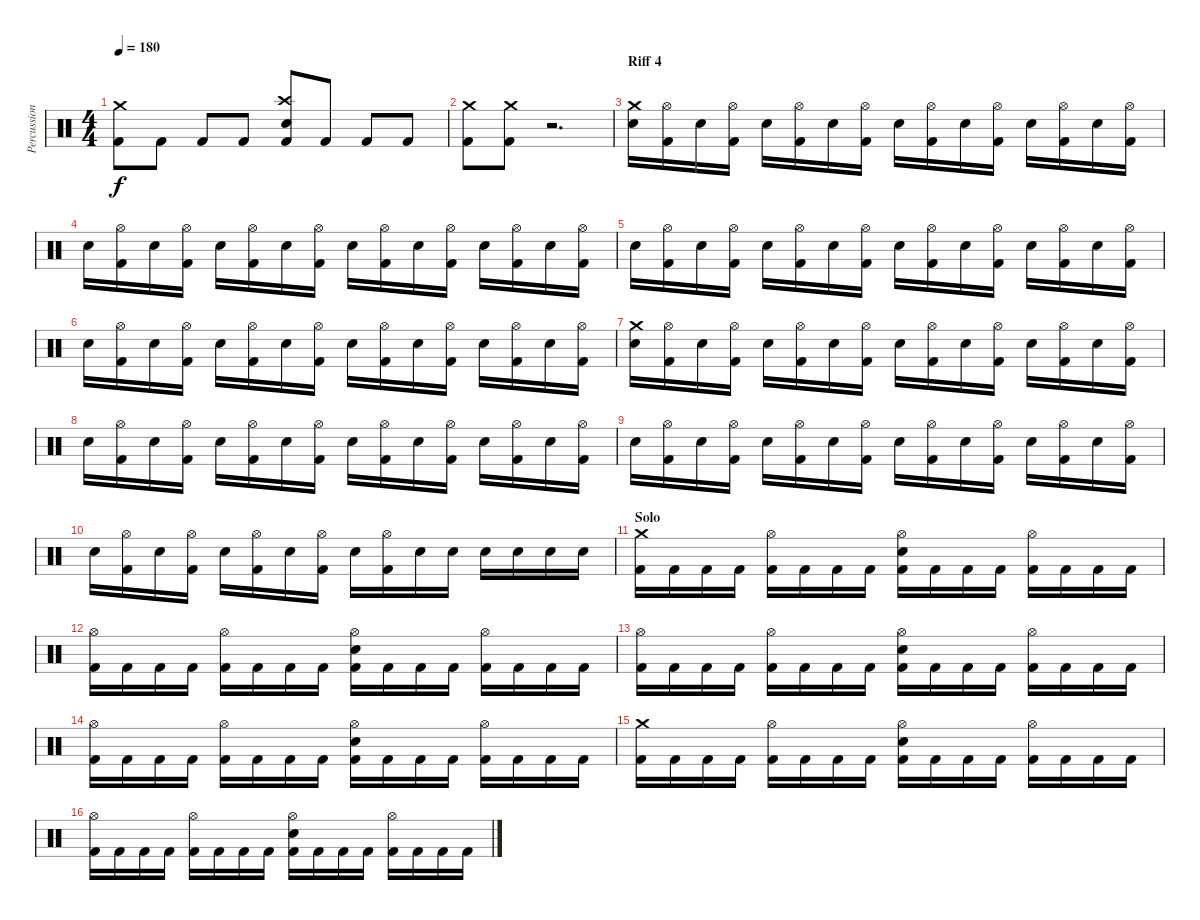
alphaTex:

\track ("Percussions" "Percussion") {instrument percussion}
\staff {score}
\articulation defaults
\ts (4 4)
\tempo 180
\clef neutral
\ks c
("Crash medium (hit)" "Kick (hit) 2").8{dy f} "Kick (hit) 2".8 "Kick (hit) 2".8 "Kick (hit) 2".8 ("Crash high (hit)" "Electric Snare (hit)" "Kick (hit) 2").8 "Kick (hit) 2".8 "Kick (hit) 2".8 "Kick (hit) 2".8 |
("Crash medium (hit)" "Kick (hit) 2").8 ("Crash medium (hit)" "Kick (hit) 2").8 r.2{d} |
\section ("" "Riff 4")
("Crash medium (hit)" "Electric Snare (hit)").16 ("Hi-Hat (open)" "Kick (hit) 2").16 "Electric Snare (hit)".16 ("Hi-Hat (open)" "Kick (hit) 2").16 "Electric Snare (hit)".16 ("Hi-Hat (open)" "Kick (hit) 2").16 "Electric Snare (hit)".16 ("Hi-Hat (open)" "Kick (hit) 2").16 "Electric Snare (hit)".16 ("Hi-Hat (open)" "Kick (hit) 2").16 "Electric Snare (hit)".16 ("Hi-Hat (open)" "Kick (hit) 2").16 "Electric Snare (hit)".16 ("Hi-Hat (open)" "Kick (hit) 2").16 "Electric Snare (hit)".16 ("Hi-Hat (open)" "Kick (hit) 2").16 |
"Electric Snare (hit)".16 ("Hi-Hat (open)" "Kick (hit) 2").16 "Electric Snare (hit)".16 ("Hi-Hat (open)" "Kick (hit) 2").16 "Electric Snare (hit)".16 ("Hi-Hat (open)" "Kick (hit) 2").16 "Electric Snare (hit)".16 ("Hi-Hat (open)" "Kick (hit) 2").16 "Electric Snare (hit)".16 ("Hi-Hat (open)" "Kick (hit) 2").16 "Electric Snare (hit)".16 ("Hi-Hat (open)" "Kick (hit) 2").16 "Electric Snare (hit)".16 ("Hi-Hat (open)" "Kick (hit) 2").16 "Electric Snare (hit)".16 ("Hi-Hat (open)" "Kick (hit) 2").16 |
"Electric Snare (hit)".16 ("Hi-Hat (open)" "Kick (hit) 2").16 "Electric Snare (hit)".16 ("Hi-Hat (open)" "Kick (hit) 2").16 "Electric Snare (hit)".16 ("Hi-Hat (open)" "Kick (hit) 2").16 "Electric Snare (hit)".16 ("Hi-Hat (open)" "Kick (hit) 2").16 "Electric Snare (hit)".16 ("Hi-Hat (open)" "Kick (hit) 2").16 "Electric Snare (hit)".16 ("Hi-Hat (open)" "Kick (hit) 2").16 "Electric Snare (hit)".16 ("Hi-Hat (open)" "Kick (hit) 2").16 "Electric Snare (hit)".16 ("Hi-Hat (open)" "Kick (hit) 2").16 |
"Electric Snare (hit)".16 ("Hi-Hat (open)" "Kick (hit) 2").16 "Electric Snare (hit)".16 ("Hi-Hat (open)" "Kick (hit) 2").16 "Electric Snare (hit)".16 ("Hi-Hat (open)" "Kick (hit) 2").16 "Electric Snare (hit)".16 ("Hi-Hat (open)" "Kick (hit) 2").16 "Electric Snare (hit)".16 ("Hi-Hat (open)" "Kick (hit) 2").16 "Electric Snare (hit)".16 ("Hi-Hat (open)" "Kick (hit) 2").16 "Electric Snare (hit)".16 ("Hi-Hat (open)" "Kick (hit) 2").16 "Electric Snare (hit)".16 ("Hi-Hat (open)" "Kick (hit) 2").16 |
("Crash medium (hit)" "Electric Snare (hit)").16 ("Hi-Hat (open)" "Kick (hit) 2").16 "Electric Snare (hit)".16 ("Hi-Hat (open)" "Kick (hit) 2").16 "Electric Snare (hit)".16 ("Hi-Hat (open)" "Kick (hit) 2").16 "Electric Snare (hit)".16 ("Hi-Hat (open)" "Kick (hit) 2").16 "Electric Snare (hit)".16 ("Hi-Hat (open)" "Kick (hit) 2").16 "Electric Snare (hit)".16 ("Hi-Hat (open)" "Kick (hit) 2").16 "Electric Snare (hit)".16 ("Hi-Hat (open)" "Kick (hit) 2").16 "Electric Snare (hit)".16 ("Hi-Hat (open)" "Kick (hit) 2").16 |
"Electric Snare (hit)".16 ("Hi-Hat (open)" "Kick (hit) 2").16 "Electric Snare (hit)".16 ("Hi-Hat (open)" "Kick (hit) 2").16 "Electric Snare (hit)".16 ("Hi-Hat (open)" "Kick (hit) 2").16 "Electric Snare (hit)".16 ("Hi-Hat (open)" "Kick (hit) 2").16 "Electric Snare (hit)".16 ("Hi-Hat (open)" "Kick (hit) 2").16 "Electric Snare (hit)".16 ("Hi-Hat (open)" "Kick (hit) 2").16 "Electric Snare (hit)".16 ("Hi-Hat (open)" "Kick (hit) 2").16 "Electric Snare (hit)".16 ("Hi-Hat (open)" "Kick (hit) 2").16 |
"Electric Snare (hit)".16 ("Hi-Hat (open)" "Kick (hit) 2").16 "Electric Snare (hit)".16 ("Hi-Hat (open)" "Kick (hit) 2").16 "Electric Snare (hit)".16 ("Hi-Hat (open)" "Kick (hit) 2").16 "Electric Snare (hit)".16 ("Hi-Hat (open)" "Kick (hit) 2").16 "Electric Snare (hit)".16 ("Hi-Hat (open)" "Kick (hit) 2").16 "Electric Snare (hit)".16 ("Hi-Hat (open)" "Kick (hit) 2").16 "Electric Snare (hit)".16 ("Hi-Hat (open)" "Kick (hit) 2").16 "Electric Snare (hit)".16 ("Hi-Hat (open)" "Kick (hit) 2").16 |
"Electric Snare (hit)".16 ("Hi-Hat (open)" "Kick (hit) 2").16 "Electric Snare (hit)".16 ("Hi-Hat (open)" "Kick (hit) 2").16 "Electric Snare (hit)".16 ("Hi-Hat (open)" "Kick (hit) 2").16 "Electric Snare (hit)".16 ("Hi-Hat (open)" "Kick (hit) 2").16 "Electric Snare (hit)".16 ("Hi-Hat (open)" "Kick (hit) 2").16 "Electric Snare (hit)".16 "Electric Snare (hit)".16 "Electric Snare (hit)".16 "Electric Snare (hit)".16 "Electric Snare (hit)".16 "Electric Snare (hit)".16 |
\section ("" "Solo")
("Crash medium (hit)" "Kick (hit) 2").16 "Kick (hit) 2".16 "Kick (hit) 2".16 "Kick (hit) 2".16 ("Hi-Hat (open)" "Kick (hit) 2").16 "Kick (hit) 2".16 "Kick (hit) 2".16 "Kick (hit) 2".16 ("Hi-Hat (open)" "Electric Snare (hit)" "Kick (hit) 2").16 "Kick (hit) 2".16 "Kick (hit) 2".16 "Kick (hit) 2".16 ("Hi-Hat (open)" "Kick (hit) 2").16 "Kick (hit) 2".16 "Kick (hit) 2".16 "Kick (hit) 2".16 |
("Hi-Hat (open)" "Kick (hit) 2").16 "Kick (hit) 2".16 "Kick (hit) 2".16 "Kick (hit) 2".16 ("Hi-Hat (open)" "Kick (hit) 2").16 "Kick (hit) 2".16 "Kick (hit) 2".16 "Kick (hit) 2".16 ("Hi-Hat (open)" "Electric Snare (hit)" "Kick (hit) 2").16 "Kick (hit) 2".16 "Kick (hit) 2".16 "Kick (hit) 2".16 ("Hi-Hat (open)" "Kick (hit) 2").16 "Kick (hit) 2".16 "Kick (hit) 2".16 "Kick (hit) 2".16 |
("Hi-Hat (open)" "Kick (hit) 2").16 "Kick (hit) 2".16 "Kick (hit) 2".16 "Kick (hit) 2".16 ("Hi-Hat (open)" "Kick (hit) 2").16 "Kick (hit) 2".16 "Kick (hit) 2".16 "Kick (hit) 2".16 ("Hi-Hat (open)" "Electric Snare (hit)" "Kick (hit) 2").16 "Kick (hit) 2".16 "Kick (hit) 2".16 "Kick (hit) 2".16 ("Hi-Hat (open)" "Kick (hit) 2").16 "Kick (hit) 2".16 "Kick (hit) 2".16 "Kick (hit) 2".16 |
("Hi-Hat (open)" "Kick (hit) 2").16 "Kick (hit) 2".16 "Kick (hit) 2".16 "Kick (hit) 2".16 ("Hi-Hat (open)" "Kick (hit) 2").16 "Kick (hit) 2".16 "Kick (hit) 2".16 "Kick (hit) 2".16 ("Hi-Hat (open)" "Electric Snare (hit)" "Kick (hit) 2").16 "Kick (hit) 2".16 "Kick (hit) 2".16 "Kick (hit) 2".16 ("Hi-Hat (open)" "Kick (hit) 2").16 "Kick (hit) 2".16 "Kick (hit) 2".16 "Kick (hit) 2".16 |
("Crash medium (hit)" "Kick (hit) 2").16 "Kick (hit) 2".16 "Kick (hit) 2".16 "Kick (hit) 2".16 ("Hi-Hat (open)" "Kick (hit) 2").16 "Kick (hit) 2".16 "Kick (hit) 2".16 "Kick (hit) 2".16 ("Hi-Hat (open)" "Electric Snare (hit)" "Kick (hit) 2").16 "Kick (hit) 2".16 "Kick (hit) 2".16 "Kick (hit) 2".16 ("Hi-Hat (open)" "Kick (hit) 2").16 "Kick (hit) 2".16 "Kick (hit) 2".16 "Kick (hit) 2".16 |
("Hi-Hat (open)" "Kick (hit) 2").16 "Kick (hit) 2".16 "Kick (hit) 2".16 "Kick (hit) 2".16 ("Hi-Hat (open)" "Kick (hit) 2").16 "Kick (hit) 2".16 "Kick (hit) 2".16 "Kick (hit) 2".16 ("Hi-Hat (open)" "Electric Snare (hit)" "Kick (hit) 2").16 "Kick (hit) 2".16 "Kick (hit) 2".16 "Kick (hit) 2".16 ("Hi-Hat (open)" "Kick (hit) 2").16 "Kick (hit) 2".16 "Kick (hit) 2".16 "Kick (hit) 2".16
